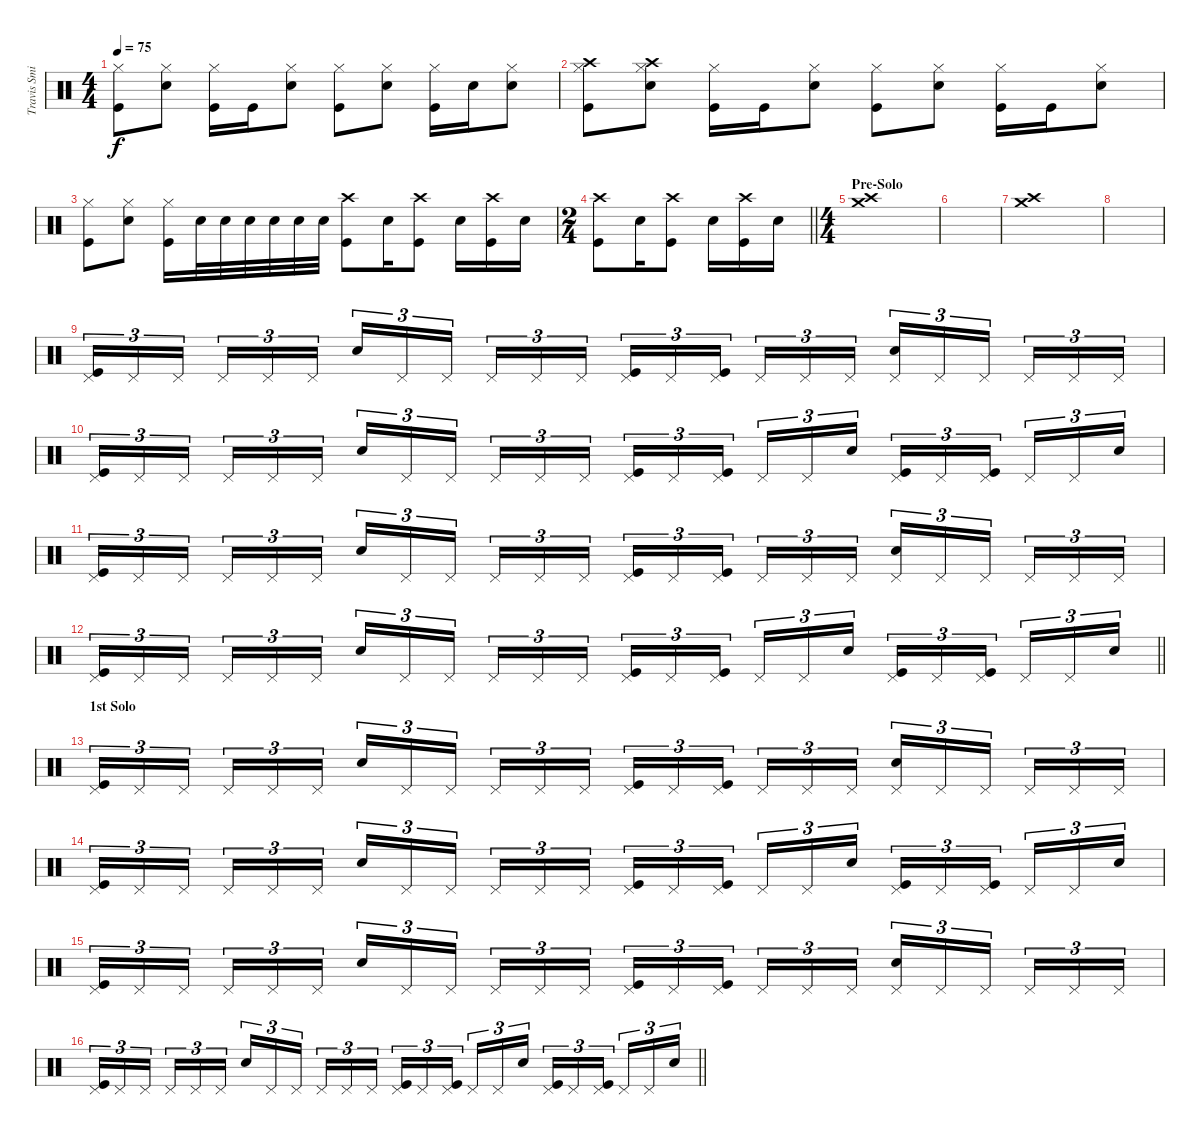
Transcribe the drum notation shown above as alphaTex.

\track ("Travis Smith" "Travis Smi") {instrument percussion}
\staff {score}
\articulation defaults
\ts (4 4)
\tempo 75
\clef neutral
\ks c
("Hi-Hat (closed)" "Kick (hit)").8{dy f} ("Hi-Hat (closed)" "Snare (hit) 2").8 ("Hi-Hat (closed)" "Kick (hit)").16 "Kick (hit)".16 ("Hi-Hat (closed)" "Snare (hit) 2").8 ("Hi-Hat (closed)" "Kick (hit)").8 ("Hi-Hat (closed)" "Snare (hit) 2").8 ("Hi-Hat (closed)" "Kick (hit)").16 "Snare (hit) 2".16 ("Hi-Hat (closed)" "Snare (hit) 2").8 |
("Crash high (hit)" "Hi-Hat (closed)" "Kick (hit)").8 ("Crash high (hit)" "Hi-Hat (closed)" "Snare (hit) 2").8 ("Hi-Hat (closed)" "Kick (hit)").16 "Kick (hit)".16 ("Hi-Hat (closed)" "Snare (hit) 2").8 ("Hi-Hat (closed)" "Kick (hit)").8 ("Hi-Hat (closed)" "Snare (hit) 2").8 ("Hi-Hat (closed)" "Kick (hit)").16 "Kick (hit)".16 ("Hi-Hat (closed)" "Snare (hit) 2").8 |
("Hi-Hat (closed)" "Kick (hit)").8 ("Hi-Hat (closed)" "Snare (hit) 2").8 ("Hi-Hat (closed)" "Kick (hit)").16 "Snare (hit) 2".32 "Snare (hit) 2".32 "Snare (hit) 2".32 "Snare (hit) 2".32 "Snare (hit) 2".32 "Snare (hit) 2".32 ("Crash high (hit)" "Kick (hit)").8 "Snare (hit) 2".16 ("Crash high (hit)" "Kick (hit)").8 "Snare (hit) 2".16 ("Crash high (hit)" "Kick (hit)").16 "Snare (hit) 2".16 |
\ts (2 4)
\barLineRight lightlight
("Crash high (hit)" "Kick (hit)").8 "Snare (hit) 2".16 ("Crash high (hit)" "Kick (hit)").8 "Snare (hit) 2".16 ("Crash high (hit)" "Kick (hit)").16 "Snare (hit) 2".16 |
\ts (4 4)
\section ("" "Pre-Solo ")
("Crash high (hit)" "Crash medium (hit)").1 |
|
("Crash high (hit)" "Crash medium (hit)").1 |
|
("Pedal Hi-Hat (hit)" "Kick (hit)").16{tu (3 2)} "Pedal Hi-Hat (hit)".16{tu (3 2)} "Pedal Hi-Hat (hit)".16{tu (3 2) beam splitsecondary} "Pedal Hi-Hat (hit)".16{tu (3 2)} "Pedal Hi-Hat (hit)".16{tu (3 2)} "Pedal Hi-Hat (hit)".16{tu (3 2)} "Snare (hit) 2".16{tu (3 2)} "Pedal Hi-Hat (hit)".16{tu (3 2)} "Pedal Hi-Hat (hit)".16{tu (3 2) beam splitsecondary} "Pedal Hi-Hat (hit)".16{tu (3 2)} "Pedal Hi-Hat (hit)".16{tu (3 2)} "Pedal Hi-Hat (hit)".16{tu (3 2)} ("Pedal Hi-Hat (hit)" "Kick (hit)").16{tu (3 2)} "Pedal Hi-Hat (hit)".16{tu (3 2)} ("Pedal Hi-Hat (hit)" "Kick (hit)").16{tu (3 2) beam splitsecondary} "Pedal Hi-Hat (hit)".16{tu (3 2)} "Pedal Hi-Hat (hit)".16{tu (3 2)} "Pedal Hi-Hat (hit)".16{tu (3 2)} ("Pedal Hi-Hat (hit)" "Snare (hit) 2").16{tu (3 2)} "Pedal Hi-Hat (hit)".16{tu (3 2)} "Pedal Hi-Hat (hit)".16{tu (3 2) beam splitsecondary} "Pedal Hi-Hat (hit)".16{tu (3 2)} "Pedal Hi-Hat (hit)".16{tu (3 2)} "Pedal Hi-Hat (hit)".16{tu (3 2)} |
("Pedal Hi-Hat (hit)" "Kick (hit)").16{tu (3 2)} "Pedal Hi-Hat (hit)".16{tu (3 2)} "Pedal Hi-Hat (hit)".16{tu (3 2) beam splitsecondary} "Pedal Hi-Hat (hit)".16{tu (3 2)} "Pedal Hi-Hat (hit)".16{tu (3 2)} "Pedal Hi-Hat (hit)".16{tu (3 2)} "Snare (hit) 2".16{tu (3 2)} "Pedal Hi-Hat (hit)".16{tu (3 2)} "Pedal Hi-Hat (hit)".16{tu (3 2) beam splitsecondary} "Pedal Hi-Hat (hit)".16{tu (3 2)} "Pedal Hi-Hat (hit)".16{tu (3 2)} "Pedal Hi-Hat (hit)".16{tu (3 2)} ("Pedal Hi-Hat (hit)" "Kick (hit)").16{tu (3 2)} "Pedal Hi-Hat (hit)".16{tu (3 2)} ("Pedal Hi-Hat (hit)" "Kick (hit)").16{tu (3 2) beam splitsecondary} "Pedal Hi-Hat (hit)".16{tu (3 2)} "Pedal Hi-Hat (hit)".16{tu (3 2)} "Snare (hit) 2".16{tu (3 2)} ("Pedal Hi-Hat (hit)" "Kick (hit)").16{tu (3 2)} "Pedal Hi-Hat (hit)".16{tu (3 2)} ("Pedal Hi-Hat (hit)" "Kick (hit)").16{tu (3 2) beam splitsecondary} "Pedal Hi-Hat (hit)".16{tu (3 2)} "Pedal Hi-Hat (hit)".16{tu (3 2)} "Snare (hit) 2".16{tu (3 2)} |
("Pedal Hi-Hat (hit)" "Kick (hit)").16{tu (3 2)} "Pedal Hi-Hat (hit)".16{tu (3 2)} "Pedal Hi-Hat (hit)".16{tu (3 2) beam splitsecondary} "Pedal Hi-Hat (hit)".16{tu (3 2)} "Pedal Hi-Hat (hit)".16{tu (3 2)} "Pedal Hi-Hat (hit)".16{tu (3 2)} "Snare (hit) 2".16{tu (3 2)} "Pedal Hi-Hat (hit)".16{tu (3 2)} "Pedal Hi-Hat (hit)".16{tu (3 2) beam splitsecondary} "Pedal Hi-Hat (hit)".16{tu (3 2)} "Pedal Hi-Hat (hit)".16{tu (3 2)} "Pedal Hi-Hat (hit)".16{tu (3 2)} ("Pedal Hi-Hat (hit)" "Kick (hit)").16{tu (3 2)} "Pedal Hi-Hat (hit)".16{tu (3 2)} ("Pedal Hi-Hat (hit)" "Kick (hit)").16{tu (3 2) beam splitsecondary} "Pedal Hi-Hat (hit)".16{tu (3 2)} "Pedal Hi-Hat (hit)".16{tu (3 2)} "Pedal Hi-Hat (hit)".16{tu (3 2)} ("Pedal Hi-Hat (hit)" "Snare (hit) 2").16{tu (3 2)} "Pedal Hi-Hat (hit)".16{tu (3 2)} "Pedal Hi-Hat (hit)".16{tu (3 2) beam splitsecondary} "Pedal Hi-Hat (hit)".16{tu (3 2)} "Pedal Hi-Hat (hit)".16{tu (3 2)} "Pedal Hi-Hat (hit)".16{tu (3 2)} |
\barLineRight lightlight
("Pedal Hi-Hat (hit)" "Kick (hit)").16{tu (3 2)} "Pedal Hi-Hat (hit)".16{tu (3 2)} "Pedal Hi-Hat (hit)".16{tu (3 2) beam splitsecondary} "Pedal Hi-Hat (hit)".16{tu (3 2)} "Pedal Hi-Hat (hit)".16{tu (3 2)} "Pedal Hi-Hat (hit)".16{tu (3 2)} "Snare (hit) 2".16{tu (3 2)} "Pedal Hi-Hat (hit)".16{tu (3 2)} "Pedal Hi-Hat (hit)".16{tu (3 2) beam splitsecondary} "Pedal Hi-Hat (hit)".16{tu (3 2)} "Pedal Hi-Hat (hit)".16{tu (3 2)} "Pedal Hi-Hat (hit)".16{tu (3 2)} ("Pedal Hi-Hat (hit)" "Kick (hit)").16{tu (3 2)} "Pedal Hi-Hat (hit)".16{tu (3 2)} ("Pedal Hi-Hat (hit)" "Kick (hit)").16{tu (3 2) beam splitsecondary} "Pedal Hi-Hat (hit)".16{tu (3 2)} "Pedal Hi-Hat (hit)".16{tu (3 2)} "Snare (hit) 2".16{tu (3 2)} ("Pedal Hi-Hat (hit)" "Kick (hit)").16{tu (3 2)} "Pedal Hi-Hat (hit)".16{tu (3 2)} ("Pedal Hi-Hat (hit)" "Kick (hit)").16{tu (3 2) beam splitsecondary} "Pedal Hi-Hat (hit)".16{tu (3 2)} "Pedal Hi-Hat (hit)".16{tu (3 2)} "Snare (hit) 2".16{tu (3 2)} |
\section ("" "1st Solo")
("Pedal Hi-Hat (hit)" "Kick (hit)").16{tu (3 2)} "Pedal Hi-Hat (hit)".16{tu (3 2)} "Pedal Hi-Hat (hit)".16{tu (3 2) beam splitsecondary} "Pedal Hi-Hat (hit)".16{tu (3 2)} "Pedal Hi-Hat (hit)".16{tu (3 2)} "Pedal Hi-Hat (hit)".16{tu (3 2)} "Snare (hit) 2".16{tu (3 2)} "Pedal Hi-Hat (hit)".16{tu (3 2)} "Pedal Hi-Hat (hit)".16{tu (3 2) beam splitsecondary} "Pedal Hi-Hat (hit)".16{tu (3 2)} "Pedal Hi-Hat (hit)".16{tu (3 2)} "Pedal Hi-Hat (hit)".16{tu (3 2)} ("Pedal Hi-Hat (hit)" "Kick (hit)").16{tu (3 2)} "Pedal Hi-Hat (hit)".16{tu (3 2)} ("Pedal Hi-Hat (hit)" "Kick (hit)").16{tu (3 2) beam splitsecondary} "Pedal Hi-Hat (hit)".16{tu (3 2)} "Pedal Hi-Hat (hit)".16{tu (3 2)} "Pedal Hi-Hat (hit)".16{tu (3 2)} ("Pedal Hi-Hat (hit)" "Snare (hit) 2").16{tu (3 2)} "Pedal Hi-Hat (hit)".16{tu (3 2)} "Pedal Hi-Hat (hit)".16{tu (3 2) beam splitsecondary} "Pedal Hi-Hat (hit)".16{tu (3 2)} "Pedal Hi-Hat (hit)".16{tu (3 2)} "Pedal Hi-Hat (hit)".16{tu (3 2)} |
("Pedal Hi-Hat (hit)" "Kick (hit)").16{tu (3 2)} "Pedal Hi-Hat (hit)".16{tu (3 2)} "Pedal Hi-Hat (hit)".16{tu (3 2) beam splitsecondary} "Pedal Hi-Hat (hit)".16{tu (3 2)} "Pedal Hi-Hat (hit)".16{tu (3 2)} "Pedal Hi-Hat (hit)".16{tu (3 2)} "Snare (hit) 2".16{tu (3 2)} "Pedal Hi-Hat (hit)".16{tu (3 2)} "Pedal Hi-Hat (hit)".16{tu (3 2) beam splitsecondary} "Pedal Hi-Hat (hit)".16{tu (3 2)} "Pedal Hi-Hat (hit)".16{tu (3 2)} "Pedal Hi-Hat (hit)".16{tu (3 2)} ("Pedal Hi-Hat (hit)" "Kick (hit)").16{tu (3 2)} "Pedal Hi-Hat (hit)".16{tu (3 2)} ("Pedal Hi-Hat (hit)" "Kick (hit)").16{tu (3 2) beam splitsecondary} "Pedal Hi-Hat (hit)".16{tu (3 2)} "Pedal Hi-Hat (hit)".16{tu (3 2)} "Snare (hit) 2".16{tu (3 2)} ("Pedal Hi-Hat (hit)" "Kick (hit)").16{tu (3 2)} "Pedal Hi-Hat (hit)".16{tu (3 2)} ("Pedal Hi-Hat (hit)" "Kick (hit)").16{tu (3 2) beam splitsecondary} "Pedal Hi-Hat (hit)".16{tu (3 2)} "Pedal Hi-Hat (hit)".16{tu (3 2)} "Snare (hit) 2".16{tu (3 2)} |
("Pedal Hi-Hat (hit)" "Kick (hit)").16{tu (3 2)} "Pedal Hi-Hat (hit)".16{tu (3 2)} "Pedal Hi-Hat (hit)".16{tu (3 2) beam splitsecondary} "Pedal Hi-Hat (hit)".16{tu (3 2)} "Pedal Hi-Hat (hit)".16{tu (3 2)} "Pedal Hi-Hat (hit)".16{tu (3 2)} "Snare (hit) 2".16{tu (3 2)} "Pedal Hi-Hat (hit)".16{tu (3 2)} "Pedal Hi-Hat (hit)".16{tu (3 2) beam splitsecondary} "Pedal Hi-Hat (hit)".16{tu (3 2)} "Pedal Hi-Hat (hit)".16{tu (3 2)} "Pedal Hi-Hat (hit)".16{tu (3 2)} ("Pedal Hi-Hat (hit)" "Kick (hit)").16{tu (3 2)} "Pedal Hi-Hat (hit)".16{tu (3 2)} ("Pedal Hi-Hat (hit)" "Kick (hit)").16{tu (3 2) beam splitsecondary} "Pedal Hi-Hat (hit)".16{tu (3 2)} "Pedal Hi-Hat (hit)".16{tu (3 2)} "Pedal Hi-Hat (hit)".16{tu (3 2)} ("Pedal Hi-Hat (hit)" "Snare (hit) 2").16{tu (3 2)} "Pedal Hi-Hat (hit)".16{tu (3 2)} "Pedal Hi-Hat (hit)".16{tu (3 2) beam splitsecondary} "Pedal Hi-Hat (hit)".16{tu (3 2)} "Pedal Hi-Hat (hit)".16{tu (3 2)} "Pedal Hi-Hat (hit)".16{tu (3 2)} |
\barLineRight lightlight
("Pedal Hi-Hat (hit)" "Kick (hit)").16{tu (3 2)} "Pedal Hi-Hat (hit)".16{tu (3 2)} "Pedal Hi-Hat (hit)".16{tu (3 2) beam splitsecondary} "Pedal Hi-Hat (hit)".16{tu (3 2)} "Pedal Hi-Hat (hit)".16{tu (3 2)} "Pedal Hi-Hat (hit)".16{tu (3 2)} "Snare (hit) 2".16{tu (3 2)} "Pedal Hi-Hat (hit)".16{tu (3 2)} "Pedal Hi-Hat (hit)".16{tu (3 2) beam splitsecondary} "Pedal Hi-Hat (hit)".16{tu (3 2)} "Pedal Hi-Hat (hit)".16{tu (3 2)} "Pedal Hi-Hat (hit)".16{tu (3 2)} ("Pedal Hi-Hat (hit)" "Kick (hit)").16{tu (3 2)} "Pedal Hi-Hat (hit)".16{tu (3 2)} ("Pedal Hi-Hat (hit)" "Kick (hit)").16{tu (3 2) beam splitsecondary} "Pedal Hi-Hat (hit)".16{tu (3 2)} "Pedal Hi-Hat (hit)".16{tu (3 2)} "Snare (hit) 2".16{tu (3 2)} ("Pedal Hi-Hat (hit)" "Kick (hit)").16{tu (3 2)} "Pedal Hi-Hat (hit)".16{tu (3 2)} ("Pedal Hi-Hat (hit)" "Kick (hit)").16{tu (3 2) beam splitsecondary} "Pedal Hi-Hat (hit)".16{tu (3 2)} "Pedal Hi-Hat (hit)".16{tu (3 2)} "Snare (hit) 2".16{tu (3 2)}
